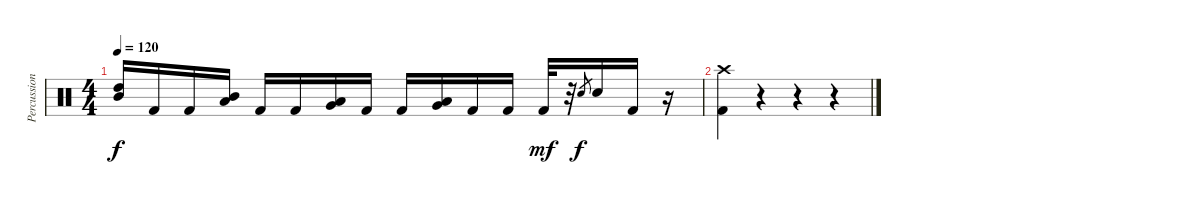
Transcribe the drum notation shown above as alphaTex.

\track ("Percussion" "Percussion") {instrument percussion}
\staff {score}
\articulation defaults
\ts (4 4)
\tempo 120
\clef neutral
\ks c
("High Tom (hit)" "Mid Tom (hit)").16{dy f} "Kick (hit) 2".16 "Kick (hit) 2".16 ("Mid Tom (hit)" "Low Tom (hit)").16 "Kick (hit) 2".16 "Kick (hit) 2".16 ("Low Tom (hit)" "Very Low Tom (hit)").16 "Kick (hit) 2".16 "Kick (hit) 2".16 ("Very Low Tom (hit)" "Low Floor Tom (hit)").16 "Kick (hit) 2".16 "Kick (hit) 2".16 "Kick (hit) 2".32{dy mf} r.32 "Snare (hit) 2".8{gr dy f} "Snare (hit) 2".16 "Kick (hit) 2".16 r.16 |
("Crash high (hit)" "Kick (hit) 2").4 r.4 r.4 r.4
